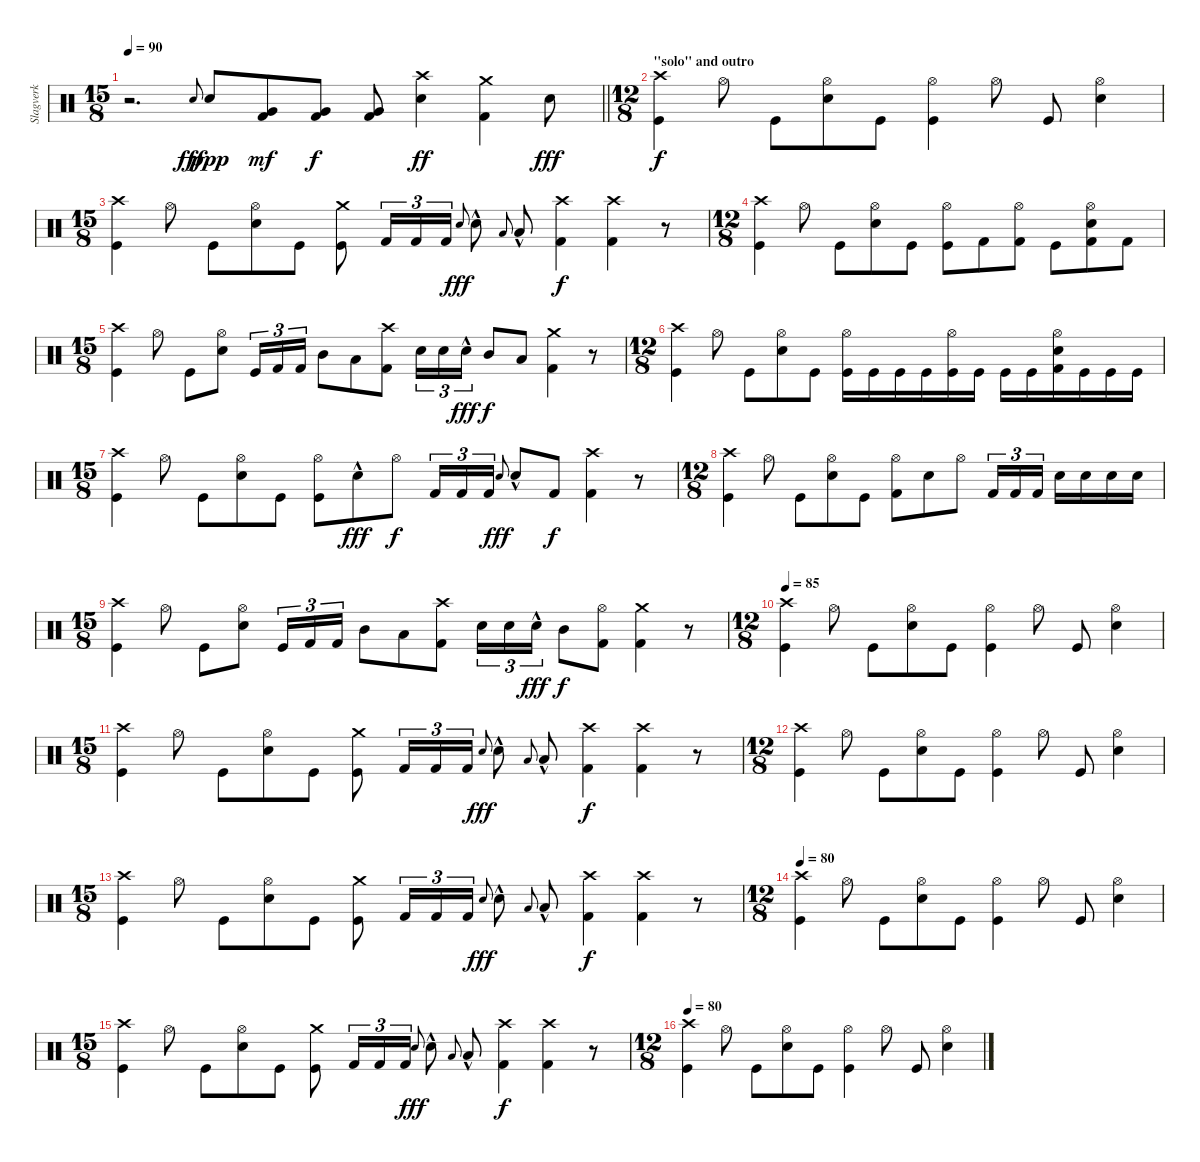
\track ("Slagverk" "Slagverk") {instrument percussion}
\staff {score}
\articulation defaults
\ts (15 8)
\tempo 90
\clef neutral
\barLineRight lightlight
\ks c
r.2{d dy f} "Snare (hit) 2".8{gr onbeat dy fff} "Snare (hit) 2".8{dy ppp} ("Kick (hit) 2" "Very Low Tom (hit)").8{dy mf} ("Very Low Tom (hit)" "Kick (hit) 2").8{dy f} ("Very Low Tom (hit)" "Kick (hit) 2").8 ("Snare (hit) 2" "Crash high (hit)").4{dy ff} ("Kick (hit) 2" "Crash medium (hit)").4 "Snare (hit) 2".8{dy fff} |
\ts (12 8)
\section ("" "\"solo\" and outro")
("Crash high (hit)" "Kick (hit)").4{dy f} "Hi-Hat (open)".8 "Kick (hit)".8 ("Hi-Hat (open)" "Snare (hit) 2").8 "Kick (hit)".8 ("Hi-Hat (open)" "Kick (hit)").4 "Hi-Hat (open)".8 "Kick (hit)".8 ("Hi-Hat (open)" "Snare (hit) 2").4 |
\ts (15 8)
("Crash high (hit)" "Kick (hit)").4 "Hi-Hat (open)".8 "Kick (hit)".8 ("Hi-Hat (open)" "Snare (hit) 2").8 "Kick (hit)".8 ("Crash medium (hit)" "Kick (hit)").8 "Kick (hit) 2".16{tu (3 2)} "Kick (hit) 2".16{tu (3 2)} "Kick (hit) 2".16{tu (3 2)} "Snare (hit) 2".8{gr onbeat dy fff} "Snare (hit) 2"{hac}.8 "Low Tom (hit)".8{gr onbeat} "Low Tom (hit)"{hac}.8 ("Kick (hit) 2" "Crash high (hit)").4{dy f} ("Kick (hit) 2" "Crash high (hit)").4 r.8 |
\ts (12 8)
("Crash high (hit)" "Kick (hit)").4 "Hi-Hat (open)".8 "Kick (hit)".8 ("Hi-Hat (open)" "Snare (hit) 2").8 "Kick (hit)".8 ("Hi-Hat (open)" "Kick (hit)").8 "Kick (hit) 2".8 ("Hi-Hat (open)" "Kick (hit) 2").8 "Kick (hit)".8 ("Hi-Hat (open)" "Snare (hit) 2" "Kick (hit) 2").8 "Kick (hit) 2".8 |
\ts (15 8)
("Crash high (hit)" "Kick (hit)").4 "Hi-Hat (open)".8 "Kick (hit)".8 ("Hi-Hat (open)" "Snare (hit) 2").8 "Kick (hit)".16{tu (3 2)} "Kick (hit) 2".16{tu (3 2)} "Kick (hit) 2".16{tu (3 2)} "Mid Tom (hit)".8 "Low Tom (hit)".8 ("Kick (hit) 2" "Crash high (hit)").8 "Snare (hit) 2".16{tu (3 2)} "Snare (hit) 2".16{tu (3 2)} "Snare (hit) 2"{hac}.16{tu (3 2) dy fff} "Mid Tom (hit)".8{dy f} "Low Tom (hit)".8 ("Kick (hit) 2" "Crash medium (hit)").4 r.8 |
\ts (12 8)
("Crash high (hit)" "Kick (hit)").4 "Hi-Hat (open)".8 "Kick (hit)".8 ("Hi-Hat (open)" "Snare (hit) 2").8 "Kick (hit)".8 ("Hi-Hat (open)" "Kick (hit)").16 "Kick (hit)".16 "Kick (hit)".16 "Kick (hit)".16 ("Kick (hit)" "Hi-Hat (open)").16 "Kick (hit)".16 "Kick (hit)".16 "Kick (hit)".16 ("Hi-Hat (open)" "Snare (hit) 2" "Kick (hit) 2").16 "Kick (hit)".16 "Kick (hit)".16 "Kick (hit)".16 |
\ts (15 8)
("Crash high (hit)" "Kick (hit)").4 "Hi-Hat (open)".8 "Kick (hit)".8 ("Hi-Hat (open)" "Snare (hit) 2").8 "Kick (hit)".8 ("Hi-Hat (open)" "Kick (hit)").8 "Snare (hit) 2"{hac}.8{dy fff} "Hi-Hat (open)".8{dy f} "Kick (hit) 2".16{tu (3 2)} "Kick (hit) 2".16{tu (3 2)} "Kick (hit) 2".16{tu (3 2)} "Snare (hit) 2".8{gr onbeat dy fff} "Snare (hit) 2"{hac}.8 "Kick (hit) 2".8{dy f} ("Crash high (hit)" "Kick (hit) 2").4 r.8 |
\ts (12 8)
("Crash high (hit)" "Kick (hit)").4 "Hi-Hat (open)".8 "Kick (hit)".8 ("Hi-Hat (open)" "Snare (hit) 2").8 "Kick (hit)".8 ("Kick (hit) 2" "Hi-Hat (open)").8 "Snare (hit) 2".8 "Hi-Hat (open)".8 "Kick (hit) 2".16{tu (3 2)} "Kick (hit) 2".16{tu (3 2)} "Kick (hit) 2".16{tu (3 2) beam splitsecondary} "Snare (hit) 2".16 "Snare (hit) 2".16 "Snare (hit) 2".16 "Snare (hit) 2".16 |
\ts (15 8)
("Crash high (hit)" "Kick (hit)").4 "Hi-Hat (open)".8 "Kick (hit)".8 ("Hi-Hat (open)" "Snare (hit) 2").8 "Kick (hit)".16{tu (3 2)} "Kick (hit) 2".16{tu (3 2)} "Kick (hit) 2".16{tu (3 2)} "Mid Tom (hit)".8 "Low Tom (hit)".8 ("Kick (hit) 2" "Crash high (hit)").8 "Snare (hit) 2".16{tu (3 2)} "Snare (hit) 2".16{tu (3 2)} "Snare (hit) 2"{hac}.16{tu (3 2) dy fff} "Mid Tom (hit)".8{dy f} ("Hi-Hat (open)" "Kick (hit) 2").8 ("Kick (hit) 2" "Crash medium (hit)").4 r.8 |
\ts (12 8)
\tempo 85
("Crash high (hit)" "Kick (hit)").4 "Hi-Hat (open)".8 "Kick (hit)".8 ("Hi-Hat (open)" "Snare (hit) 2").8 "Kick (hit)".8 ("Hi-Hat (open)" "Kick (hit)").4 "Hi-Hat (open)".8 "Kick (hit)".8 ("Hi-Hat (open)" "Snare (hit) 2").4 |
\ts (15 8)
("Crash high (hit)" "Kick (hit)").4 "Hi-Hat (open)".8 "Kick (hit)".8 ("Hi-Hat (open)" "Snare (hit) 2").8 "Kick (hit)".8 ("Crash medium (hit)" "Kick (hit)").8 "Kick (hit) 2".16{tu (3 2)} "Kick (hit) 2".16{tu (3 2)} "Kick (hit) 2".16{tu (3 2)} "Snare (hit) 2".8{gr onbeat dy fff} "Snare (hit) 2"{hac}.8 "Low Tom (hit)".8{gr onbeat} "Low Tom (hit)"{hac}.8 ("Kick (hit) 2" "Crash high (hit)").4{dy f} ("Kick (hit) 2" "Crash high (hit)").4 r.8 |
\ts (12 8)
("Crash high (hit)" "Kick (hit)").4 "Hi-Hat (open)".8 "Kick (hit)".8 ("Hi-Hat (open)" "Snare (hit) 2").8 "Kick (hit)".8 ("Hi-Hat (open)" "Kick (hit)").4 "Hi-Hat (open)".8 "Kick (hit)".8 ("Hi-Hat (open)" "Snare (hit) 2").4 |
\ts (15 8)
("Crash high (hit)" "Kick (hit)").4 "Hi-Hat (open)".8 "Kick (hit)".8 ("Hi-Hat (open)" "Snare (hit) 2").8 "Kick (hit)".8 ("Crash medium (hit)" "Kick (hit)").8 "Kick (hit) 2".16{tu (3 2)} "Kick (hit) 2".16{tu (3 2)} "Kick (hit) 2".16{tu (3 2)} "Snare (hit) 2".8{gr onbeat dy fff} "Snare (hit) 2"{hac}.8 "Low Tom (hit)".8{gr onbeat} "Low Tom (hit)"{hac}.8 ("Kick (hit) 2" "Crash high (hit)").4{dy f} ("Kick (hit) 2" "Crash high (hit)").4 r.8 |
\ts (12 8)
\tempo 80
("Crash high (hit)" "Kick (hit)").4 "Hi-Hat (open)".8 "Kick (hit)".8 ("Hi-Hat (open)" "Snare (hit) 2").8 "Kick (hit)".8 ("Hi-Hat (open)" "Kick (hit)").4 "Hi-Hat (open)".8 "Kick (hit)".8 ("Hi-Hat (open)" "Snare (hit) 2").4 |
\ts (15 8)
("Crash high (hit)" "Kick (hit)").4 "Hi-Hat (open)".8 "Kick (hit)".8 ("Hi-Hat (open)" "Snare (hit) 2").8 "Kick (hit)".8 ("Crash medium (hit)" "Kick (hit)").8 "Kick (hit) 2".16{tu (3 2)} "Kick (hit) 2".16{tu (3 2)} "Kick (hit) 2".16{tu (3 2)} "Snare (hit) 2".8{gr onbeat dy fff} "Snare (hit) 2"{hac}.8 "Low Tom (hit)".8{gr onbeat} "Low Tom (hit)"{hac}.8 ("Kick (hit) 2" "Crash high (hit)").4{dy f} ("Kick (hit) 2" "Crash high (hit)").4 r.8 |
\ts (12 8)
\tempo 80
("Crash high (hit)" "Kick (hit)").4 "Hi-Hat (open)".8 "Kick (hit)".8 ("Hi-Hat (open)" "Snare (hit) 2").8 "Kick (hit)".8 ("Hi-Hat (open)" "Kick (hit)").4 "Hi-Hat (open)".8 "Kick (hit)".8 ("Hi-Hat (open)" "Snare (hit) 2").4
